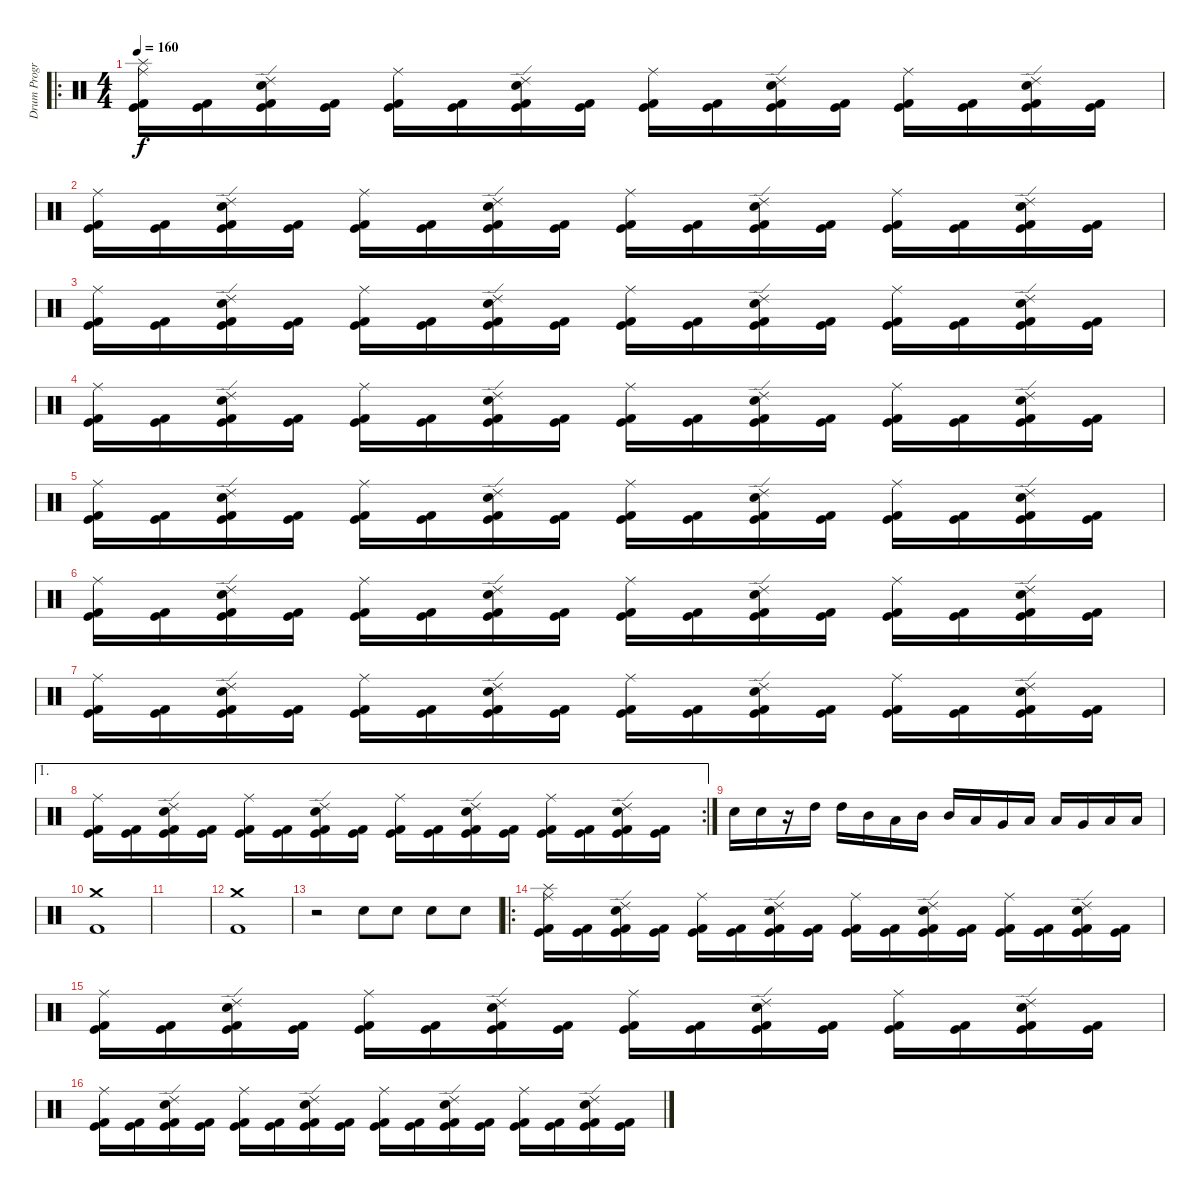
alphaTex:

\track ("Drum Program - BG" "Drum Progr") {instrument percussion}
\staff {score}
\articulation defaults
\ro
\ts (4 4)
\tempo 160
\clef neutral
\ks c
("Kick (hit)" "Kick (hit) 2" "Splash (hit)" "Ride (middle)").16{dy f} ("Kick (hit)" "Kick (hit) 2").16 ("Kick (hit)" "Kick (hit) 2" "Electric Snare (hit)" "Ride (edge) 2").16 ("Kick (hit)" "Kick (hit) 2").16 ("Kick (hit)" "Kick (hit) 2" "Ride (middle)").16 ("Kick (hit)" "Kick (hit) 2").16 ("Kick (hit)" "Kick (hit) 2" "Electric Snare (hit)" "Ride (edge) 2").16 ("Kick (hit)" "Kick (hit) 2").16 ("Kick (hit)" "Kick (hit) 2" "Ride (middle)").16 ("Kick (hit)" "Kick (hit) 2").16 ("Kick (hit)" "Kick (hit) 2" "Electric Snare (hit)" "Ride (edge) 2").16 ("Kick (hit)" "Kick (hit) 2").16 ("Kick (hit)" "Kick (hit) 2" "Ride (middle)").16 ("Kick (hit)" "Kick (hit) 2").16 ("Kick (hit)" "Kick (hit) 2" "Electric Snare (hit)" "Ride (edge) 2").16 ("Kick (hit)" "Kick (hit) 2").16 |
("Kick (hit)" "Kick (hit) 2" "Ride (middle)").16 ("Kick (hit)" "Kick (hit) 2").16 ("Kick (hit)" "Kick (hit) 2" "Electric Snare (hit)" "Ride (edge) 2").16 ("Kick (hit)" "Kick (hit) 2").16 ("Kick (hit)" "Kick (hit) 2" "Ride (middle)").16 ("Kick (hit)" "Kick (hit) 2").16 ("Kick (hit)" "Kick (hit) 2" "Electric Snare (hit)" "Ride (edge) 2").16 ("Kick (hit)" "Kick (hit) 2").16 ("Kick (hit)" "Kick (hit) 2" "Ride (middle)").16 ("Kick (hit)" "Kick (hit) 2").16 ("Kick (hit)" "Kick (hit) 2" "Electric Snare (hit)" "Ride (edge) 2").16 ("Kick (hit)" "Kick (hit) 2").16 ("Kick (hit)" "Kick (hit) 2" "Ride (middle)").16 ("Kick (hit)" "Kick (hit) 2").16 ("Kick (hit)" "Kick (hit) 2" "Electric Snare (hit)" "Ride (edge) 2").16 ("Kick (hit)" "Kick (hit) 2").16 |
("Kick (hit)" "Kick (hit) 2" "Ride (middle)").16 ("Kick (hit)" "Kick (hit) 2").16 ("Kick (hit)" "Kick (hit) 2" "Electric Snare (hit)" "Ride (edge) 2").16 ("Kick (hit)" "Kick (hit) 2").16 ("Kick (hit)" "Kick (hit) 2" "Ride (middle)").16 ("Kick (hit)" "Kick (hit) 2").16 ("Kick (hit)" "Kick (hit) 2" "Electric Snare (hit)" "Ride (edge) 2").16 ("Kick (hit)" "Kick (hit) 2").16 ("Kick (hit)" "Kick (hit) 2" "Ride (middle)").16 ("Kick (hit)" "Kick (hit) 2").16 ("Kick (hit)" "Kick (hit) 2" "Electric Snare (hit)" "Ride (edge) 2").16 ("Kick (hit)" "Kick (hit) 2").16 ("Kick (hit)" "Kick (hit) 2" "Ride (middle)").16 ("Kick (hit)" "Kick (hit) 2").16 ("Kick (hit)" "Kick (hit) 2" "Electric Snare (hit)" "Ride (edge) 2").16 ("Kick (hit)" "Kick (hit) 2").16 |
("Kick (hit)" "Kick (hit) 2" "Ride (middle)").16 ("Kick (hit)" "Kick (hit) 2").16 ("Kick (hit)" "Kick (hit) 2" "Electric Snare (hit)" "Ride (edge) 2").16 ("Kick (hit)" "Kick (hit) 2").16 ("Kick (hit)" "Kick (hit) 2" "Ride (middle)").16 ("Kick (hit)" "Kick (hit) 2").16 ("Kick (hit)" "Kick (hit) 2" "Electric Snare (hit)" "Ride (edge) 2").16 ("Kick (hit)" "Kick (hit) 2").16 ("Kick (hit)" "Kick (hit) 2" "Ride (middle)").16 ("Kick (hit)" "Kick (hit) 2").16 ("Kick (hit)" "Kick (hit) 2" "Electric Snare (hit)" "Ride (edge) 2").16 ("Kick (hit)" "Kick (hit) 2").16 ("Kick (hit)" "Kick (hit) 2" "Ride (middle)").16 ("Kick (hit)" "Kick (hit) 2").16 ("Kick (hit)" "Kick (hit) 2" "Electric Snare (hit)" "Ride (edge) 2").16 ("Kick (hit)" "Kick (hit) 2").16 |
("Kick (hit)" "Kick (hit) 2" "Ride (middle)").16 ("Kick (hit)" "Kick (hit) 2").16 ("Kick (hit)" "Kick (hit) 2" "Electric Snare (hit)" "Ride (edge) 2").16 ("Kick (hit)" "Kick (hit) 2").16 ("Kick (hit)" "Kick (hit) 2" "Ride (middle)").16 ("Kick (hit)" "Kick (hit) 2").16 ("Kick (hit)" "Kick (hit) 2" "Electric Snare (hit)" "Ride (edge) 2").16 ("Kick (hit)" "Kick (hit) 2").16 ("Kick (hit)" "Kick (hit) 2" "Ride (middle)").16 ("Kick (hit)" "Kick (hit) 2").16 ("Kick (hit)" "Kick (hit) 2" "Electric Snare (hit)" "Ride (edge) 2").16 ("Kick (hit)" "Kick (hit) 2").16 ("Kick (hit)" "Kick (hit) 2" "Ride (middle)").16 ("Kick (hit)" "Kick (hit) 2").16 ("Kick (hit)" "Kick (hit) 2" "Electric Snare (hit)" "Ride (edge) 2").16 ("Kick (hit)" "Kick (hit) 2").16 |
("Kick (hit)" "Kick (hit) 2" "Ride (middle)").16 ("Kick (hit)" "Kick (hit) 2").16 ("Kick (hit)" "Kick (hit) 2" "Electric Snare (hit)" "Ride (edge) 2").16 ("Kick (hit)" "Kick (hit) 2").16 ("Kick (hit)" "Kick (hit) 2" "Ride (middle)").16 ("Kick (hit)" "Kick (hit) 2").16 ("Kick (hit)" "Kick (hit) 2" "Electric Snare (hit)" "Ride (edge) 2").16 ("Kick (hit)" "Kick (hit) 2").16 ("Kick (hit)" "Kick (hit) 2" "Ride (middle)").16 ("Kick (hit)" "Kick (hit) 2").16 ("Kick (hit)" "Kick (hit) 2" "Electric Snare (hit)" "Ride (edge) 2").16 ("Kick (hit)" "Kick (hit) 2").16 ("Kick (hit)" "Kick (hit) 2" "Ride (middle)").16 ("Kick (hit)" "Kick (hit) 2").16 ("Kick (hit)" "Kick (hit) 2" "Electric Snare (hit)" "Ride (edge) 2").16 ("Kick (hit)" "Kick (hit) 2").16 |
("Kick (hit)" "Kick (hit) 2" "Ride (middle)").16 ("Kick (hit)" "Kick (hit) 2").16 ("Kick (hit)" "Kick (hit) 2" "Electric Snare (hit)" "Ride (edge) 2").16 ("Kick (hit)" "Kick (hit) 2").16 ("Kick (hit)" "Kick (hit) 2" "Ride (middle)").16 ("Kick (hit)" "Kick (hit) 2").16 ("Kick (hit)" "Kick (hit) 2" "Electric Snare (hit)" "Ride (edge) 2").16 ("Kick (hit)" "Kick (hit) 2").16 ("Kick (hit)" "Kick (hit) 2" "Ride (middle)").16 ("Kick (hit)" "Kick (hit) 2").16 ("Kick (hit)" "Kick (hit) 2" "Electric Snare (hit)" "Ride (edge) 2").16 ("Kick (hit)" "Kick (hit) 2").16 ("Kick (hit)" "Kick (hit) 2" "Ride (middle)").16 ("Kick (hit)" "Kick (hit) 2").16 ("Kick (hit)" "Kick (hit) 2" "Electric Snare (hit)" "Ride (edge) 2").16 ("Kick (hit)" "Kick (hit) 2").16 |
\ae 1
\rc 2
("Kick (hit)" "Kick (hit) 2" "Ride (middle)").16 ("Kick (hit)" "Kick (hit) 2").16 ("Kick (hit)" "Kick (hit) 2" "Electric Snare (hit)" "Ride (edge) 2").16 ("Kick (hit)" "Kick (hit) 2").16 ("Kick (hit)" "Kick (hit) 2" "Ride (middle)").16 ("Kick (hit)" "Kick (hit) 2").16 ("Kick (hit)" "Kick (hit) 2" "Electric Snare (hit)" "Ride (edge) 2").16 ("Kick (hit)" "Kick (hit) 2").16 ("Kick (hit)" "Kick (hit) 2" "Ride (middle)").16 ("Kick (hit)" "Kick (hit) 2").16 ("Kick (hit)" "Kick (hit) 2" "Electric Snare (hit)" "Ride (edge) 2").16 ("Kick (hit)" "Kick (hit) 2").16 ("Kick (hit)" "Kick (hit) 2" "Ride (middle)").16 ("Kick (hit)" "Kick (hit) 2").16 ("Kick (hit)" "Kick (hit) 2" "Electric Snare (hit)" "Ride (edge) 2").16 ("Kick (hit)" "Kick (hit) 2").16 |
"Electric Snare (hit)".16 "Electric Snare (hit)".16 r.16 "High Tom (hit)".16 "High Tom (hit)".16 "Mid Tom (hit)".16 "Low Tom (hit)".16 "Mid Tom (hit)".16 "Mid Tom (hit)".16 "Low Tom (hit)".16 "Very Low Tom (hit)".16 "Low Floor Tom (hit)".16 "Low Tom (hit)".16 "Very Low Tom (hit)".16 "Low Floor Tom (hit)".16 "Low Floor Tom (hit)".16 |
("Kick (hit) 2" "Crash medium (hit)").1 |
|
("Kick (hit) 2" "Crash medium (hit)").1 |
r.2 "Electric Snare (hit)".8 "Electric Snare (hit)".8 "Electric Snare (hit)".8 "Electric Snare (hit)".8 |
\ro
("Kick (hit)" "Kick (hit) 2" "Splash (hit)" "Ride (middle)").16 ("Kick (hit)" "Kick (hit) 2").16 ("Kick (hit)" "Kick (hit) 2" "Electric Snare (hit)" "Ride (edge) 2").16 ("Kick (hit)" "Kick (hit) 2").16 ("Kick (hit)" "Kick (hit) 2" "Ride (middle)").16 ("Kick (hit)" "Kick (hit) 2").16 ("Kick (hit)" "Kick (hit) 2" "Electric Snare (hit)" "Ride (edge) 2").16 ("Kick (hit)" "Kick (hit) 2").16 ("Kick (hit)" "Kick (hit) 2" "Ride (middle)").16 ("Kick (hit)" "Kick (hit) 2").16 ("Kick (hit)" "Kick (hit) 2" "Electric Snare (hit)" "Ride (edge) 2").16 ("Kick (hit)" "Kick (hit) 2").16 ("Kick (hit)" "Kick (hit) 2" "Ride (middle)").16 ("Kick (hit)" "Kick (hit) 2").16 ("Kick (hit)" "Kick (hit) 2" "Electric Snare (hit)" "Ride (edge) 2").16 ("Kick (hit)" "Kick (hit) 2").16 |
("Kick (hit)" "Kick (hit) 2" "Ride (middle)").16 ("Kick (hit)" "Kick (hit) 2").16 ("Kick (hit)" "Kick (hit) 2" "Electric Snare (hit)" "Ride (edge) 2").16 ("Kick (hit)" "Kick (hit) 2").16 ("Kick (hit)" "Kick (hit) 2" "Ride (middle)").16 ("Kick (hit)" "Kick (hit) 2").16 ("Kick (hit)" "Kick (hit) 2" "Electric Snare (hit)" "Ride (edge) 2").16 ("Kick (hit)" "Kick (hit) 2").16 ("Kick (hit)" "Kick (hit) 2" "Ride (middle)").16 ("Kick (hit)" "Kick (hit) 2").16 ("Kick (hit)" "Kick (hit) 2" "Electric Snare (hit)" "Ride (edge) 2").16 ("Kick (hit)" "Kick (hit) 2").16 ("Kick (hit)" "Kick (hit) 2" "Ride (middle)").16 ("Kick (hit)" "Kick (hit) 2").16 ("Kick (hit)" "Kick (hit) 2" "Electric Snare (hit)" "Ride (edge) 2").16 ("Kick (hit)" "Kick (hit) 2").16 |
("Kick (hit)" "Kick (hit) 2" "Ride (middle)").16 ("Kick (hit)" "Kick (hit) 2").16 ("Kick (hit)" "Kick (hit) 2" "Electric Snare (hit)" "Ride (edge) 2").16 ("Kick (hit)" "Kick (hit) 2").16 ("Kick (hit)" "Kick (hit) 2" "Ride (middle)").16 ("Kick (hit)" "Kick (hit) 2").16 ("Kick (hit)" "Kick (hit) 2" "Electric Snare (hit)" "Ride (edge) 2").16 ("Kick (hit)" "Kick (hit) 2").16 ("Kick (hit)" "Kick (hit) 2" "Ride (middle)").16 ("Kick (hit)" "Kick (hit) 2").16 ("Kick (hit)" "Kick (hit) 2" "Electric Snare (hit)" "Ride (edge) 2").16 ("Kick (hit)" "Kick (hit) 2").16 ("Kick (hit)" "Kick (hit) 2" "Ride (middle)").16 ("Kick (hit)" "Kick (hit) 2").16 ("Kick (hit)" "Kick (hit) 2" "Electric Snare (hit)" "Ride (edge) 2").16 ("Kick (hit)" "Kick (hit) 2").16
